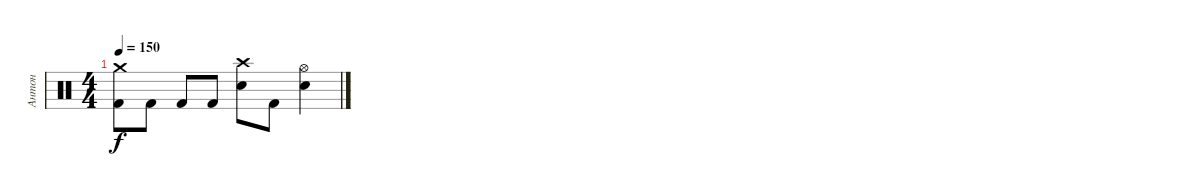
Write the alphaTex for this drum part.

\track ("Антон" "Антон") {instrument percussion}
\staff {score}
\articulation defaults
\ts (4 4)
\tempo 150
\clef neutral
\ks c
("Crash medium (hit)" "Kick (hit) 2").8{dy f} "Kick (hit) 2".8 "Kick (hit) 2".8 "Kick (hit) 2".8 ("Crash high (hit)" "Electric Snare (hit)").8 "Kick (hit) 2".8 ("Hi-Hat (open)" "Electric Snare (hit)").4
